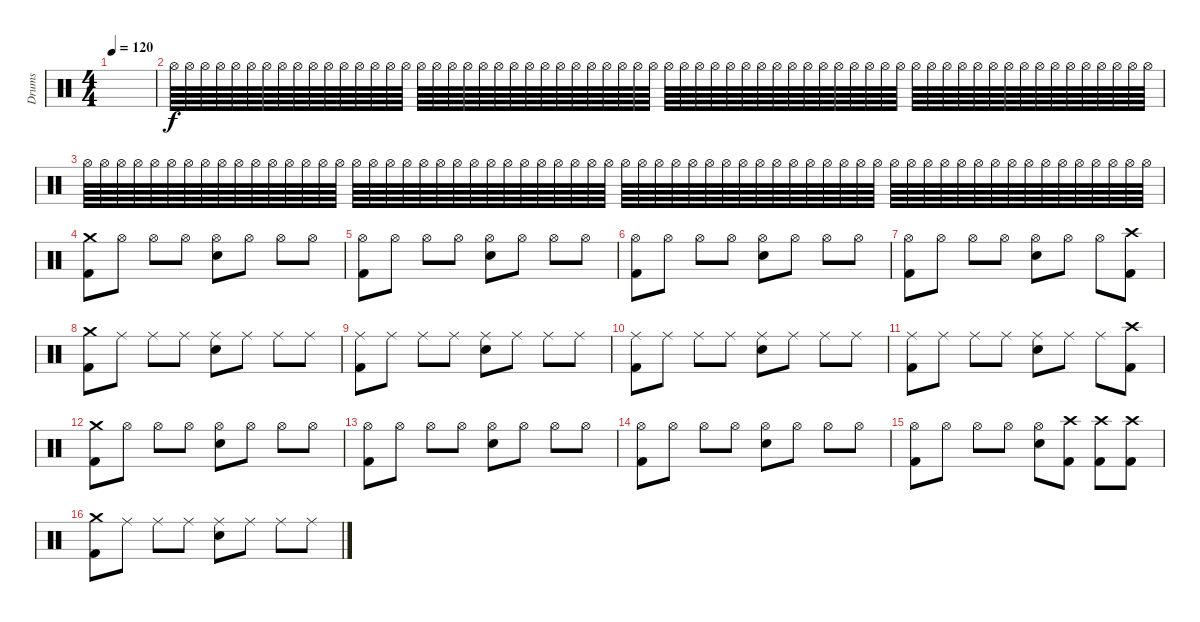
\track ("Drums" "Drums") {instrument percussion}
\staff {score}
\articulation defaults
\ts (4 4)
\tempo 120
\clef neutral
\ks c
|
"Hi-Hat (open)".64{volume 16} "Hi-Hat (open)".64 "Hi-Hat (open)".64 "Hi-Hat (open)".64 "Hi-Hat (open)".64 "Hi-Hat (open)".64 "Hi-Hat (open)".64 "Hi-Hat (open)".64 "Hi-Hat (open)".64 "Hi-Hat (open)".64 "Hi-Hat (open)".64 "Hi-Hat (open)".64 "Hi-Hat (open)".64 "Hi-Hat (open)".64 "Hi-Hat (open)".64 "Hi-Hat (open)".64 "Hi-Hat (open)".64 "Hi-Hat (open)".64 "Hi-Hat (open)".64 "Hi-Hat (open)".64 "Hi-Hat (open)".64 "Hi-Hat (open)".64 "Hi-Hat (open)".64 "Hi-Hat (open)".64 "Hi-Hat (open)".64 "Hi-Hat (open)".64 "Hi-Hat (open)".64 "Hi-Hat (open)".64 "Hi-Hat (open)".64 "Hi-Hat (open)".64 "Hi-Hat (open)".64 "Hi-Hat (open)".64 "Hi-Hat (open)".64 "Hi-Hat (open)".64 "Hi-Hat (open)".64 "Hi-Hat (open)".64 "Hi-Hat (open)".64 "Hi-Hat (open)".64 "Hi-Hat (open)".64 "Hi-Hat (open)".64 "Hi-Hat (open)".64 "Hi-Hat (open)".64 "Hi-Hat (open)".64 "Hi-Hat (open)".64 "Hi-Hat (open)".64 "Hi-Hat (open)".64 "Hi-Hat (open)".64 "Hi-Hat (open)".64 "Hi-Hat (open)".64 "Hi-Hat (open)".64 "Hi-Hat (open)".64 "Hi-Hat (open)".64 "Hi-Hat (open)".64 "Hi-Hat (open)".64 "Hi-Hat (open)".64 "Hi-Hat (open)".64 "Hi-Hat (open)".64 "Hi-Hat (open)".64 "Hi-Hat (open)".64 "Hi-Hat (open)".64 "Hi-Hat (open)".64 "Hi-Hat (open)".64 "Hi-Hat (open)".64 "Hi-Hat (open)".64 |
"Hi-Hat (open)".64 "Hi-Hat (open)".64 "Hi-Hat (open)".64 "Hi-Hat (open)".64 "Hi-Hat (open)".64 "Hi-Hat (open)".64 "Hi-Hat (open)".64 "Hi-Hat (open)".64 "Hi-Hat (open)".64 "Hi-Hat (open)".64 "Hi-Hat (open)".64 "Hi-Hat (open)".64 "Hi-Hat (open)".64 "Hi-Hat (open)".64 "Hi-Hat (open)".64 "Hi-Hat (open)".64 "Hi-Hat (open)".64 "Hi-Hat (open)".64 "Hi-Hat (open)".64 "Hi-Hat (open)".64 "Hi-Hat (open)".64 "Hi-Hat (open)".64 "Hi-Hat (open)".64 "Hi-Hat (open)".64 "Hi-Hat (open)".64 "Hi-Hat (open)".64 "Hi-Hat (open)".64 "Hi-Hat (open)".64 "Hi-Hat (open)".64 "Hi-Hat (open)".64 "Hi-Hat (open)".64 "Hi-Hat (open)".64 "Hi-Hat (open)".64 "Hi-Hat (open)".64 "Hi-Hat (open)".64 "Hi-Hat (open)".64 "Hi-Hat (open)".64 "Hi-Hat (open)".64 "Hi-Hat (open)".64 "Hi-Hat (open)".64 "Hi-Hat (open)".64 "Hi-Hat (open)".64 "Hi-Hat (open)".64 "Hi-Hat (open)".64 "Hi-Hat (open)".64 "Hi-Hat (open)".64 "Hi-Hat (open)".64 "Hi-Hat (open)".64 "Hi-Hat (open)".64 "Hi-Hat (open)".64 "Hi-Hat (open)".64 "Hi-Hat (open)".64 "Hi-Hat (open)".64 "Hi-Hat (open)".64 "Hi-Hat (open)".64 "Hi-Hat (open)".64 "Hi-Hat (open)".64 "Hi-Hat (open)".64 "Hi-Hat (open)".64 "Hi-Hat (open)".64 "Hi-Hat (open)".64 "Hi-Hat (open)".64 "Hi-Hat (open)".64 "Hi-Hat (open)".64 |
("Crash medium (hit)" "Kick (hit) 2").8 "Hi-Hat (open)".8 "Hi-Hat (open)".8 "Hi-Hat (open)".8 ("Hi-Hat (open)" "Electric Snare (hit)").8 "Hi-Hat (open)".8 "Hi-Hat (open)".8 "Hi-Hat (open)".8 |
("Hi-Hat (open)" "Kick (hit) 2").8 "Hi-Hat (open)".8 "Hi-Hat (open)".8 "Hi-Hat (open)".8 ("Hi-Hat (open)" "Electric Snare (hit)").8 "Hi-Hat (open)".8 "Hi-Hat (open)".8 "Hi-Hat (open)".8 |
("Hi-Hat (open)" "Kick (hit) 2").8 "Hi-Hat (open)".8 "Hi-Hat (open)".8 "Hi-Hat (open)".8 ("Hi-Hat (open)" "Electric Snare (hit)").8 "Hi-Hat (open)".8 "Hi-Hat (open)".8 "Hi-Hat (open)".8 |
("Hi-Hat (open)" "Kick (hit) 2").8 "Hi-Hat (open)".8 "Hi-Hat (open)".8 "Hi-Hat (open)".8 ("Hi-Hat (open)" "Electric Snare (hit)").8 "Hi-Hat (open)".8 "Hi-Hat (open)".8 ("Crash high (hit)" "Kick (hit) 2").8 |
("Crash medium (hit)" "Kick (hit) 2").8 "Ride (middle)".8 "Ride (middle)".8 "Ride (middle)".8 ("Ride (middle)" "Electric Snare (hit)").8 "Ride (middle)".8 "Ride (middle)".8 "Ride (middle)".8 |
("Ride (middle)" "Kick (hit) 2").8 "Ride (middle)".8 "Ride (middle)".8 "Ride (middle)".8 ("Ride (middle)" "Electric Snare (hit)").8 "Ride (middle)".8 "Ride (middle)".8 "Ride (middle)".8 |
("Ride (middle)" "Kick (hit) 2").8 "Ride (middle)".8 "Ride (middle)".8 "Ride (middle)".8 ("Ride (middle)" "Electric Snare (hit)").8 "Ride (middle)".8 "Ride (middle)".8 "Ride (middle)".8 |
("Ride (middle)" "Kick (hit) 2").8 "Ride (middle)".8 "Ride (middle)".8 "Ride (middle)".8 ("Ride (middle)" "Electric Snare (hit)").8 "Ride (middle)".8 "Ride (middle)".8 ("Crash high (hit)" "Kick (hit) 2").8 |
("Crash medium (hit)" "Kick (hit) 2").8 "Hi-Hat (open)".8 "Hi-Hat (open)".8 "Hi-Hat (open)".8 ("Hi-Hat (open)" "Electric Snare (hit)").8 "Hi-Hat (open)".8 "Hi-Hat (open)".8 "Hi-Hat (open)".8 |
("Hi-Hat (open)" "Kick (hit) 2").8 "Hi-Hat (open)".8 "Hi-Hat (open)".8 "Hi-Hat (open)".8 ("Hi-Hat (open)" "Electric Snare (hit)").8 "Hi-Hat (open)".8 "Hi-Hat (open)".8 "Hi-Hat (open)".8 |
("Hi-Hat (open)" "Kick (hit) 2").8 "Hi-Hat (open)".8 "Hi-Hat (open)".8 "Hi-Hat (open)".8 ("Hi-Hat (open)" "Electric Snare (hit)").8 "Hi-Hat (open)".8 "Hi-Hat (open)".8 "Hi-Hat (open)".8 |
("Hi-Hat (open)" "Kick (hit) 2").8 "Hi-Hat (open)".8 "Hi-Hat (open)".8 "Hi-Hat (open)".8 ("Hi-Hat (open)" "Electric Snare (hit)").8 ("Crash high (hit)" "Kick (hit) 2").8 ("Crash high (hit)" "Kick (hit) 2").8 ("Crash high (hit)" "Kick (hit) 2").8 |
("Crash medium (hit)" "Kick (hit) 2").8 "Ride (middle)".8 "Ride (middle)".8 "Ride (middle)".8 ("Ride (middle)" "Electric Snare (hit)").8 "Ride (middle)".8 "Ride (middle)".8 "Ride (middle)".8
